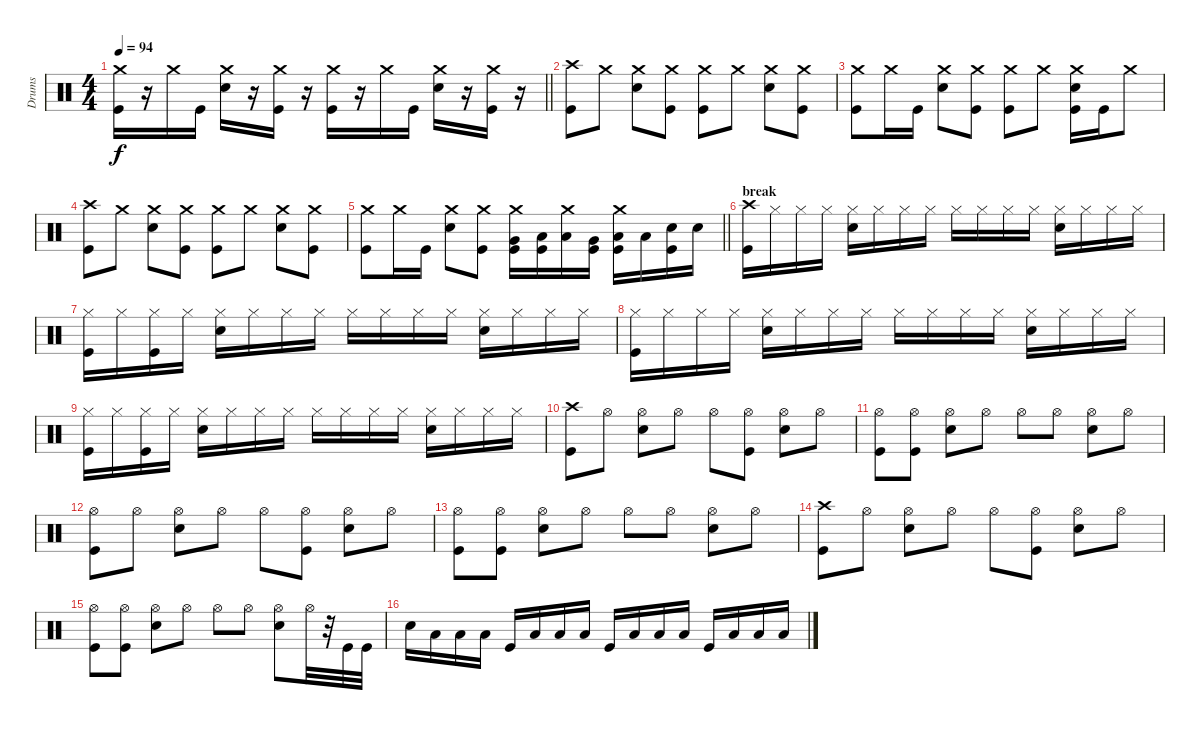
\track ("Drums" "Drums") {instrument percussion}
\staff {score}
\articulation defaults
\ts (4 4)
\tempo 94
\clef neutral
\barLineRight lightlight
\ks c
("Crash medium (hit)" "Kick (hit)").16{dy f} r.16 "Crash medium (hit)".16 "Kick (hit)".16 ("Crash medium (hit)" "Electric Snare (hit)").16 r.16 ("Crash medium (hit)" "Kick (hit)").16 r.16 ("Crash medium (hit)" "Kick (hit)").16 r.16 "Crash medium (hit)".16 "Kick (hit)".16 ("Crash medium (hit)" "Electric Snare (hit)").16 r.16 ("Crash medium (hit)" "Kick (hit)").16 r.16 |
\section ("" "")
("Crash high (hit)" "Kick (hit)").8 "Crash medium (hit)".8 ("Crash medium (hit)" "Electric Snare (hit)").8 ("Crash medium (hit)" "Kick (hit)").8 ("Crash medium (hit)" "Kick (hit)").8 "Crash medium (hit)".8 ("Crash medium (hit)" "Electric Snare (hit)").8 ("Crash medium (hit)" "Kick (hit)").8 |
("Crash medium (hit)" "Kick (hit)").8 "Crash medium (hit)".16 "Kick (hit)".16 ("Crash medium (hit)" "Electric Snare (hit)").8 ("Crash medium (hit)" "Kick (hit)").8 ("Crash medium (hit)" "Kick (hit)").8 "Crash medium (hit)".8 ("Crash medium (hit)" "Electric Snare (hit)" "Kick (hit)").16 "Kick (hit)".16 "Crash medium (hit)".8 |
("Crash high (hit)" "Kick (hit)").8 "Crash medium (hit)".8 ("Crash medium (hit)" "Electric Snare (hit)").8 ("Crash medium (hit)" "Kick (hit)").8 ("Crash medium (hit)" "Kick (hit)").8 "Crash medium (hit)".8 ("Crash medium (hit)" "Electric Snare (hit)").8 ("Crash medium (hit)" "Kick (hit)").8 |
\barLineRight lightlight
("Crash medium (hit)" "Kick (hit)").8 "Crash medium (hit)".16 "Kick (hit)".16 ("Crash medium (hit)" "Electric Snare (hit)").8 ("Crash medium (hit)" "Kick (hit)").8 ("Crash medium (hit)" "Very Low Tom (hit)" "Kick (hit)").16 ("Low Floor Tom (hit)" "Kick (hit)").16 ("Crash medium (hit)" "Low Floor Tom (hit)").16 ("Very Low Tom (hit)" "Kick (hit)").16 ("Crash medium (hit)" "Low Floor Tom (hit)" "Kick (hit)").16 "Low Floor Tom (hit)".16 ("Electric Snare (hit)" "Kick (hit)").16 "Electric Snare (hit)".16 |
\section ("" "break")
("Crash high (hit)" "Kick (hit)").16 "Hi-Hat (closed)".16 "Hi-Hat (closed)".16 "Hi-Hat (closed)".16 ("Hi-Hat (closed)" "Electric Snare (hit)").16 "Hi-Hat (closed)".16 "Hi-Hat (closed)".16 "Hi-Hat (closed)".16 "Hi-Hat (closed)".16 "Hi-Hat (closed)".16 "Hi-Hat (closed)".16 "Hi-Hat (closed)".16 ("Hi-Hat (closed)" "Electric Snare (hit)").16 "Hi-Hat (closed)".16 "Hi-Hat (closed)".16 "Hi-Hat (closed)".16 |
("Hi-Hat (closed)" "Kick (hit)").16 "Hi-Hat (closed)".16 ("Hi-Hat (closed)" "Kick (hit)").16 "Hi-Hat (closed)".16 ("Hi-Hat (closed)" "Electric Snare (hit)").16 "Hi-Hat (closed)".16 "Hi-Hat (closed)".16 "Hi-Hat (closed)".16 "Hi-Hat (closed)".16 "Hi-Hat (closed)".16 "Hi-Hat (closed)".16 "Hi-Hat (closed)".16 ("Hi-Hat (closed)" "Electric Snare (hit)").16 "Hi-Hat (closed)".16 "Hi-Hat (closed)".16 "Hi-Hat (closed)".16 |
("Hi-Hat (closed)" "Kick (hit)").16 "Hi-Hat (closed)".16 "Hi-Hat (closed)".16 "Hi-Hat (closed)".16 ("Hi-Hat (closed)" "Electric Snare (hit)").16 "Hi-Hat (closed)".16 "Hi-Hat (closed)".16 "Hi-Hat (closed)".16 "Hi-Hat (closed)".16 "Hi-Hat (closed)".16 "Hi-Hat (closed)".16 "Hi-Hat (closed)".16 ("Hi-Hat (closed)" "Electric Snare (hit)").16 "Hi-Hat (closed)".16 "Hi-Hat (closed)".16 "Hi-Hat (closed)".16 |
("Hi-Hat (closed)" "Kick (hit)").16 "Hi-Hat (closed)".16 ("Hi-Hat (closed)" "Kick (hit)").16 "Hi-Hat (closed)".16 ("Hi-Hat (closed)" "Electric Snare (hit)").16 "Hi-Hat (closed)".16 "Hi-Hat (closed)".16 "Hi-Hat (closed)".16 "Hi-Hat (closed)".16 "Hi-Hat (closed)".16 "Hi-Hat (closed)".16 "Hi-Hat (closed)".16 ("Hi-Hat (closed)" "Electric Snare (hit)").16 "Hi-Hat (closed)".16 "Hi-Hat (closed)".16 "Hi-Hat (closed)".16 |
("Crash high (hit)" "Kick (hit)").8 "Hi-Hat (open)".8 ("Hi-Hat (open)" "Electric Snare (hit)").8 "Hi-Hat (open)".8 "Hi-Hat (open)".8 ("Hi-Hat (open)" "Kick (hit)").8 ("Hi-Hat (open)" "Electric Snare (hit)").8 "Hi-Hat (open)".8 |
("Hi-Hat (open)" "Kick (hit)").8 ("Hi-Hat (open)" "Kick (hit)").8 ("Hi-Hat (open)" "Electric Snare (hit)").8 "Hi-Hat (open)".8 "Hi-Hat (open)".8 "Hi-Hat (open)".8 ("Hi-Hat (open)" "Electric Snare (hit)").8 "Hi-Hat (open)".8 |
("Hi-Hat (open)" "Kick (hit)").8 "Hi-Hat (open)".8 ("Hi-Hat (open)" "Electric Snare (hit)").8 "Hi-Hat (open)".8 "Hi-Hat (open)".8 ("Hi-Hat (open)" "Kick (hit)").8 ("Hi-Hat (open)" "Electric Snare (hit)").8 "Hi-Hat (open)".8 |
("Hi-Hat (open)" "Kick (hit)").8 ("Hi-Hat (open)" "Kick (hit)").8 ("Hi-Hat (open)" "Electric Snare (hit)").8 "Hi-Hat (open)".8 "Hi-Hat (open)".8 "Hi-Hat (open)".8 ("Hi-Hat (open)" "Electric Snare (hit)").8 "Hi-Hat (open)".8 |
("Crash high (hit)" "Kick (hit)").8 "Hi-Hat (open)".8 ("Hi-Hat (open)" "Electric Snare (hit)").8 "Hi-Hat (open)".8 "Hi-Hat (open)".8 ("Hi-Hat (open)" "Kick (hit)").8 ("Hi-Hat (open)" "Electric Snare (hit)").8 "Hi-Hat (open)".8 |
("Hi-Hat (open)" "Kick (hit)").8 ("Hi-Hat (open)" "Kick (hit)").8 ("Hi-Hat (open)" "Electric Snare (hit)").8 "Hi-Hat (open)".8 "Hi-Hat (open)".8 "Hi-Hat (open)".8 ("Hi-Hat (open)" "Electric Snare (hit)").8 "Hi-Hat (open)".32 r.32 "Kick (hit)".32 "Kick (hit)".32 |
"Electric Snare (hit)".16 "Low Floor Tom (hit)".16 "Low Floor Tom (hit)".16 "Low Floor Tom (hit)".16 "Kick (hit)".16 "Low Floor Tom (hit)".16 "Low Floor Tom (hit)".16 "Low Floor Tom (hit)".16 "Kick (hit)".16 "Low Floor Tom (hit)".16 "Low Floor Tom (hit)".16 "Low Floor Tom (hit)".16 "Kick (hit)".16 "Low Floor Tom (hit)".16 "Low Floor Tom (hit)".16 "Low Floor Tom (hit)".16
